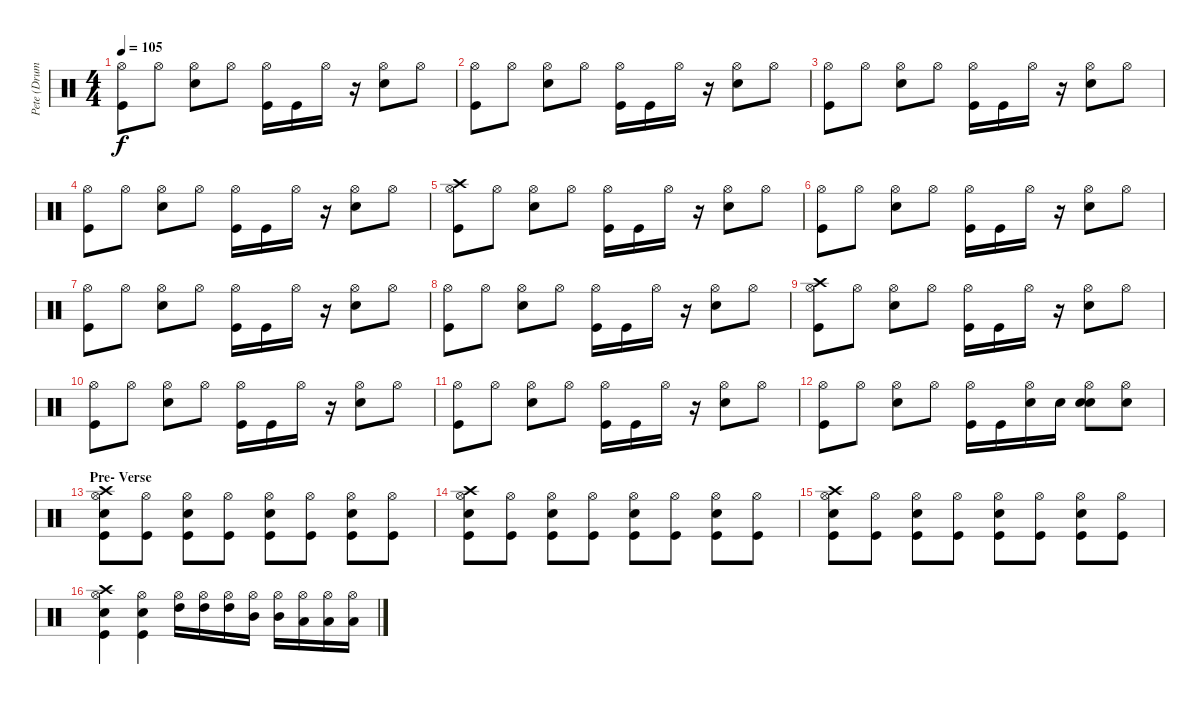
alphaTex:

\track ("Pete (Drums)" "Pete (Drum") {instrument percussion}
\staff {score}
\articulation defaults
\ts (4 4)
\tempo 105
\clef neutral
\ks c
("Hi-Hat (open)" "Kick (hit)").8{dy f} "Hi-Hat (open)".8 ("Hi-Hat (open)" "Snare (hit) 2").8 "Hi-Hat (open)".8 ("Hi-Hat (open)" "Kick (hit)").16 "Kick (hit)".16 "Hi-Hat (open)".16 r.16 ("Hi-Hat (open)" "Snare (hit) 2").8 "Hi-Hat (open)".8 |
("Hi-Hat (open)" "Kick (hit)").8 "Hi-Hat (open)".8 ("Hi-Hat (open)" "Snare (hit) 2").8 "Hi-Hat (open)".8 ("Hi-Hat (open)" "Kick (hit)").16 "Kick (hit)".16 "Hi-Hat (open)".16 r.16 ("Hi-Hat (open)" "Snare (hit) 2").8 "Hi-Hat (open)".8 |
("Hi-Hat (open)" "Kick (hit)").8 "Hi-Hat (open)".8 ("Hi-Hat (open)" "Snare (hit) 2").8 "Hi-Hat (open)".8 ("Hi-Hat (open)" "Kick (hit)").16 "Kick (hit)".16 "Hi-Hat (open)".16 r.16 ("Hi-Hat (open)" "Snare (hit) 2").8 "Hi-Hat (open)".8 |
("Hi-Hat (open)" "Kick (hit)").8 "Hi-Hat (open)".8 ("Hi-Hat (open)" "Snare (hit) 2").8 "Hi-Hat (open)".8 ("Hi-Hat (open)" "Kick (hit)").16 "Kick (hit)".16 "Hi-Hat (open)".16 r.16 ("Hi-Hat (open)" "Snare (hit) 2").8 "Hi-Hat (open)".8 |
("Hi-Hat (open)" "Crash high (hit)" "Kick (hit)").8 "Hi-Hat (open)".8 ("Hi-Hat (open)" "Snare (hit) 2").8 "Hi-Hat (open)".8 ("Hi-Hat (open)" "Kick (hit)").16 "Kick (hit)".16 "Hi-Hat (open)".16 r.16 ("Hi-Hat (open)" "Snare (hit) 2").8 "Hi-Hat (open)".8 |
("Hi-Hat (open)" "Kick (hit)").8 "Hi-Hat (open)".8 ("Hi-Hat (open)" "Snare (hit) 2").8 "Hi-Hat (open)".8 ("Hi-Hat (open)" "Kick (hit)").16 "Kick (hit)".16 "Hi-Hat (open)".16 r.16 ("Hi-Hat (open)" "Snare (hit) 2").8 "Hi-Hat (open)".8 |
("Hi-Hat (open)" "Kick (hit)").8 "Hi-Hat (open)".8 ("Hi-Hat (open)" "Snare (hit) 2").8 "Hi-Hat (open)".8 ("Hi-Hat (open)" "Kick (hit)").16 "Kick (hit)".16 "Hi-Hat (open)".16 r.16 ("Hi-Hat (open)" "Snare (hit) 2").8 "Hi-Hat (open)".8 |
("Hi-Hat (open)" "Kick (hit)").8 "Hi-Hat (open)".8 ("Hi-Hat (open)" "Snare (hit) 2").8 "Hi-Hat (open)".8 ("Hi-Hat (open)" "Kick (hit)").16 "Kick (hit)".16 "Hi-Hat (open)".16 r.16 ("Hi-Hat (open)" "Snare (hit) 2").8 "Hi-Hat (open)".8 |
("Hi-Hat (open)" "Crash high (hit)" "Kick (hit)").8 "Hi-Hat (open)".8 ("Hi-Hat (open)" "Snare (hit) 2").8 "Hi-Hat (open)".8 ("Hi-Hat (open)" "Kick (hit)").16 "Kick (hit)".16 "Hi-Hat (open)".16 r.16 ("Hi-Hat (open)" "Snare (hit) 2").8 "Hi-Hat (open)".8 |
("Hi-Hat (open)" "Kick (hit)").8 "Hi-Hat (open)".8 ("Hi-Hat (open)" "Snare (hit) 2").8 "Hi-Hat (open)".8 ("Hi-Hat (open)" "Kick (hit)").16 "Kick (hit)".16 "Hi-Hat (open)".16 r.16 ("Hi-Hat (open)" "Snare (hit) 2").8 "Hi-Hat (open)".8 |
("Hi-Hat (open)" "Kick (hit)").8 "Hi-Hat (open)".8 ("Hi-Hat (open)" "Snare (hit) 2").8 "Hi-Hat (open)".8 ("Hi-Hat (open)" "Kick (hit)").16 "Kick (hit)".16 "Hi-Hat (open)".16 r.16 ("Hi-Hat (open)" "Snare (hit) 2").8 "Hi-Hat (open)".8 |
("Hi-Hat (open)" "Kick (hit)").8 "Hi-Hat (open)".8 ("Hi-Hat (open)" "Snare (hit) 2").8 "Hi-Hat (open)".8 ("Hi-Hat (open)" "Kick (hit)").16 "Kick (hit)".16 ("Hi-Hat (open)" "Snare (hit) 2").16 "Snare (hit) 2".16 ("Hi-Hat (open)" "Snare (hit) 2" "Snare (hit) 2").8 ("Hi-Hat (open)" "Snare (hit) 2").8 |
\section ("" "Pre- Verse")
("Crash high (hit)" "Kick (hit)" "Hi-Hat (open)" "Snare (hit) 2").8 ("Kick (hit)" "Hi-Hat (open)").8 ("Kick (hit)" "Hi-Hat (open)" "Snare (hit) 2").8 ("Kick (hit)" "Hi-Hat (open)").8 ("Kick (hit)" "Hi-Hat (open)" "Snare (hit) 2").8 ("Kick (hit)" "Hi-Hat (open)").8 ("Kick (hit)" "Hi-Hat (open)" "Snare (hit) 2").8 ("Kick (hit)" "Hi-Hat (open)").8 |
("Crash high (hit)" "Kick (hit)" "Hi-Hat (open)" "Snare (hit) 2").8 ("Kick (hit)" "Hi-Hat (open)").8 ("Kick (hit)" "Hi-Hat (open)" "Snare (hit) 2").8 ("Kick (hit)" "Hi-Hat (open)").8 ("Kick (hit)" "Hi-Hat (open)" "Snare (hit) 2").8 ("Kick (hit)" "Hi-Hat (open)").8 ("Kick (hit)" "Hi-Hat (open)" "Snare (hit) 2").8 ("Kick (hit)" "Hi-Hat (open)").8 |
("Crash high (hit)" "Kick (hit)" "Hi-Hat (open)" "Snare (hit) 2").8 ("Kick (hit)" "Hi-Hat (open)").8 ("Kick (hit)" "Hi-Hat (open)" "Snare (hit) 2").8 ("Kick (hit)" "Hi-Hat (open)").8 ("Kick (hit)" "Hi-Hat (open)" "Snare (hit) 2").8 ("Kick (hit)" "Hi-Hat (open)").8 ("Kick (hit)" "Hi-Hat (open)" "Snare (hit) 2").8 ("Kick (hit)" "Hi-Hat (open)").8 |
("Crash high (hit)" "Kick (hit)" "Hi-Hat (open)" "Snare (hit) 2").4 ("Kick (hit)" "Hi-Hat (open)" "Snare (hit) 2").4 ("High Tom (hit)" "Hi-Hat (open)").16 ("High Tom (hit)" "Hi-Hat (open)").16 ("High Tom (hit)" "Hi-Hat (open)").16 ("Mid Tom (hit)" "Hi-Hat (open)").16 ("Mid Tom (hit)" "Hi-Hat (open)").16 ("Low Tom (hit)" "Hi-Hat (open)").16 ("Low Tom (hit)" "Hi-Hat (open)").16 ("Low Tom (hit)" "Hi-Hat (open)").16
